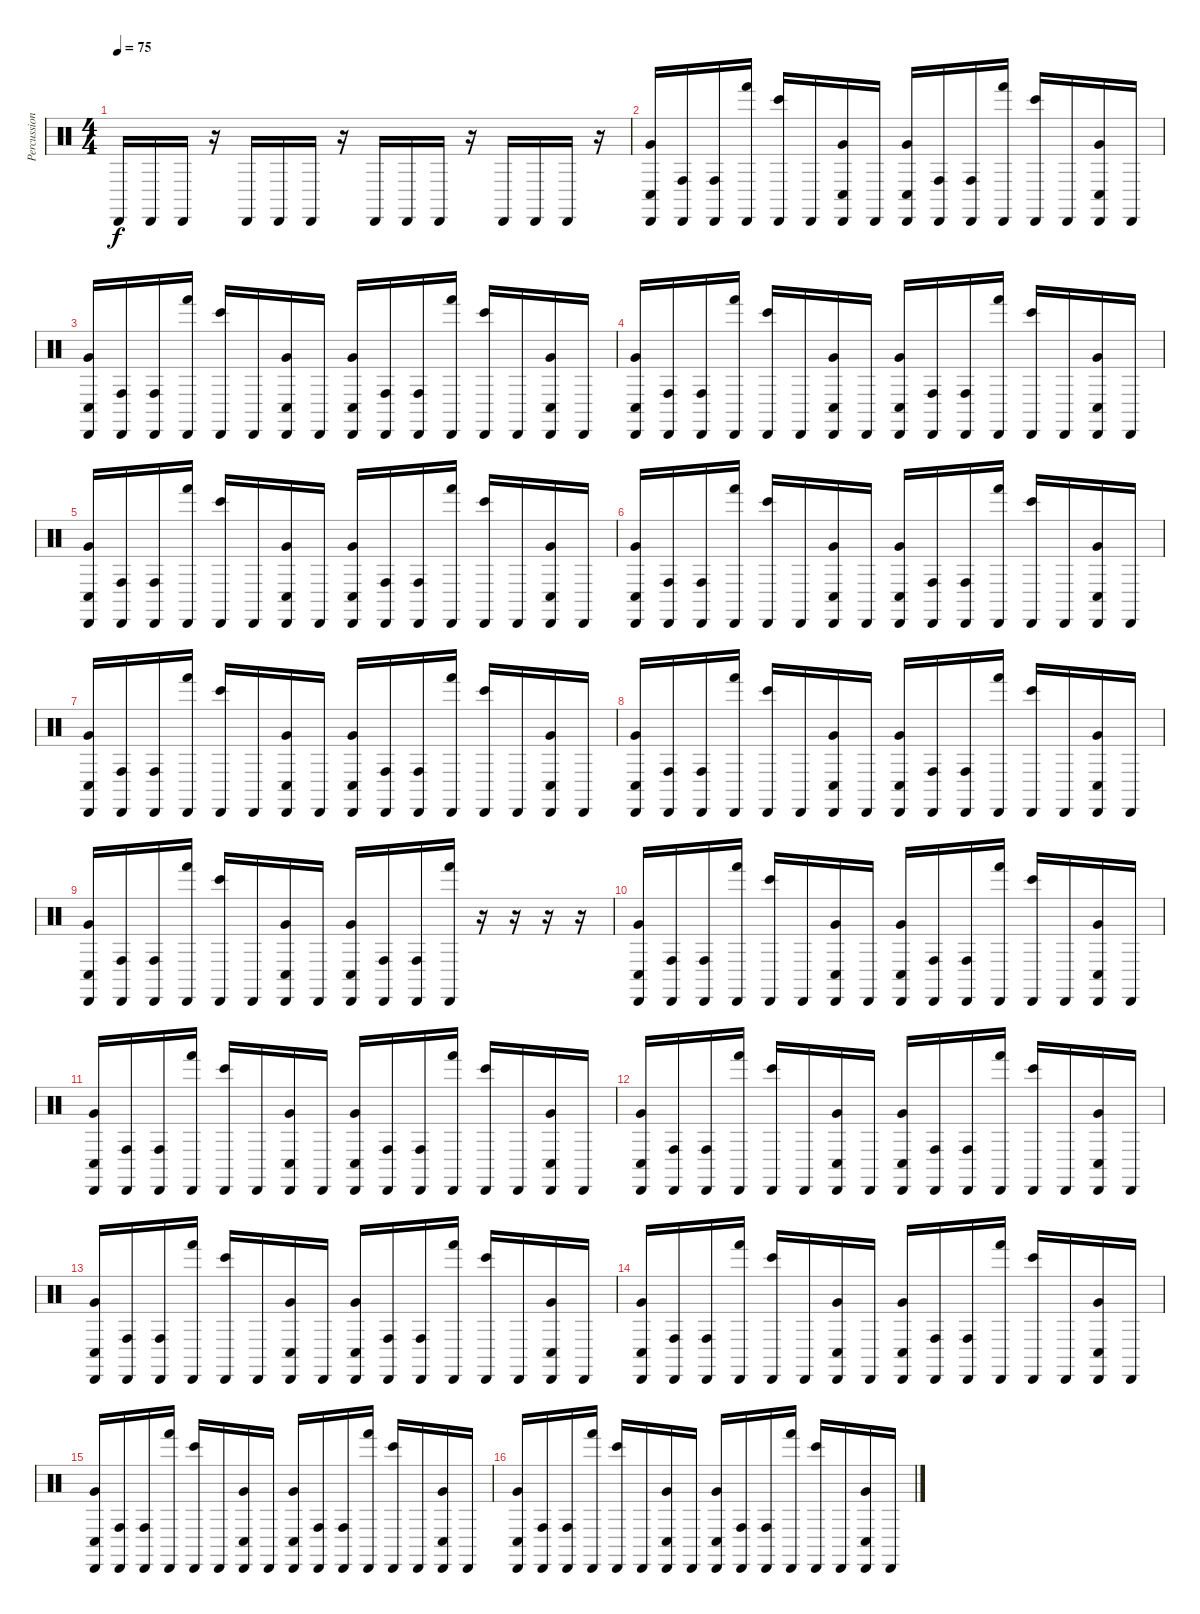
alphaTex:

\track ("Percussions" "Percussion") {instrument percussion}
\staff {score}
\articulation defaults
\ts (4 4)
\tempo 75
\clef neutral
\ks c "Cabasa (hit)".16{dy f} "Cabasa (hit)".16 "Cabasa (hit)".16
r.16 "Cabasa (hit)".16 "Cabasa (hit)".16 "Cabasa (hit)".16 r.16 "Cabasa (hit)".16 "Cabasa (hit)".16 "Cabasa (hit)".16 r.16 "Cabasa (hit)".16 "Cabasa (hit)".16 "Cabasa (hit)".16 r.16 |
("Conga low (hit)" "Very Low Tom (hit)" "Cabasa (hit)").16 ("Conga high (hit)" "Cabasa (hit)").16 ("Conga high (hit)" "Cabasa (hit)").16 ("Hand (hit)" "Cabasa (hit)").16 ("Bongo High (hit)" "Cabasa (hit)").16 "Cabasa (hit)".16 ("Conga low (hit)" "Very Low Tom (hit)" "Cabasa (hit)").16 "Cabasa (hit)".16 ("Conga low (hit)" "Very Low Tom (hit)" "Cabasa (hit)").16 ("Conga high (hit)" "Cabasa (hit)").16 ("Conga high (hit)" "Cabasa (hit)").16 ("Hand (hit)" "Cabasa (hit)").16 ("Bongo High (hit)" "Cabasa (hit)").16 "Cabasa (hit)".16 ("Conga low (hit)" "Very Low Tom (hit)" "Cabasa (hit)").16 "Cabasa (hit)".16 |
("Conga low (hit)" "Very Low Tom (hit)" "Cabasa (hit)").16 ("Conga high (hit)" "Cabasa (hit)").16 ("Conga high (hit)" "Cabasa (hit)").16 ("Hand (hit)" "Cabasa (hit)").16 ("Bongo High (hit)" "Cabasa (hit)").16 "Cabasa (hit)".16 ("Conga low (hit)" "Very Low Tom (hit)" "Cabasa (hit)").16 "Cabasa (hit)".16 ("Conga low (hit)" "Very Low Tom (hit)" "Cabasa (hit)").16 ("Conga high (hit)" "Cabasa (hit)").16 ("Conga high (hit)" "Cabasa (hit)").16 ("Hand (hit)" "Cabasa (hit)").16 ("Bongo High (hit)" "Cabasa (hit)").16 "Cabasa (hit)".16 ("Conga low (hit)" "Very Low Tom (hit)" "Cabasa (hit)").16 "Cabasa (hit)".16 |
("Conga low (hit)" "Very Low Tom (hit)" "Cabasa (hit)").16 ("Conga high (hit)" "Cabasa (hit)").16 ("Conga high (hit)" "Cabasa (hit)").16 ("Hand (hit)" "Cabasa (hit)").16 ("Bongo High (hit)" "Cabasa (hit)").16 "Cabasa (hit)".16 ("Conga low (hit)" "Very Low Tom (hit)" "Cabasa (hit)").16 "Cabasa (hit)".16 ("Conga low (hit)" "Very Low Tom (hit)" "Cabasa (hit)").16 ("Conga high (hit)" "Cabasa (hit)").16 ("Conga high (hit)" "Cabasa (hit)").16 ("Hand (hit)" "Cabasa (hit)").16 ("Bongo High (hit)" "Cabasa (hit)").16 "Cabasa (hit)".16 ("Conga low (hit)" "Very Low Tom (hit)" "Cabasa (hit)").16 "Cabasa (hit)".16 |
("Conga low (hit)" "Very Low Tom (hit)" "Cabasa (hit)").16 ("Conga high (hit)" "Cabasa (hit)").16 ("Conga high (hit)" "Cabasa (hit)").16 ("Hand (hit)" "Cabasa (hit)").16 ("Bongo High (hit)" "Cabasa (hit)").16 "Cabasa (hit)".16 ("Conga low (hit)" "Very Low Tom (hit)" "Cabasa (hit)").16 "Cabasa (hit)".16 ("Conga low (hit)" "Very Low Tom (hit)" "Cabasa (hit)").16 ("Conga high (hit)" "Cabasa (hit)").16 ("Conga high (hit)" "Cabasa (hit)").16 ("Hand (hit)" "Cabasa (hit)").16 ("Bongo High (hit)" "Cabasa (hit)").16 "Cabasa (hit)".16 ("Conga low (hit)" "Very Low Tom (hit)" "Cabasa (hit)").16 "Cabasa (hit)".16 |
("Conga low (hit)" "Very Low Tom (hit)" "Cabasa (hit)").16 ("Conga high (hit)" "Cabasa (hit)").16 ("Conga high (hit)" "Cabasa (hit)").16 ("Hand (hit)" "Cabasa (hit)").16 ("Bongo High (hit)" "Cabasa (hit)").16 "Cabasa (hit)".16 ("Conga low (hit)" "Very Low Tom (hit)" "Cabasa (hit)").16 "Cabasa (hit)".16 ("Conga low (hit)" "Very Low Tom (hit)" "Cabasa (hit)").16 ("Conga high (hit)" "Cabasa (hit)").16 ("Conga high (hit)" "Cabasa (hit)").16 ("Hand (hit)" "Cabasa (hit)").16 ("Bongo High (hit)" "Cabasa (hit)").16 "Cabasa (hit)".16 ("Conga low (hit)" "Very Low Tom (hit)" "Cabasa (hit)").16 "Cabasa (hit)".16 |
("Conga low (hit)" "Very Low Tom (hit)" "Cabasa (hit)").16 ("Conga high (hit)" "Cabasa (hit)").16 ("Conga high (hit)" "Cabasa (hit)").16 ("Hand (hit)" "Cabasa (hit)").16 ("Bongo High (hit)" "Cabasa (hit)").16 "Cabasa (hit)".16 ("Conga low (hit)" "Very Low Tom (hit)" "Cabasa (hit)").16 "Cabasa (hit)".16 ("Conga low (hit)" "Very Low Tom (hit)" "Cabasa (hit)").16 ("Conga high (hit)" "Cabasa (hit)").16 ("Conga high (hit)" "Cabasa (hit)").16 ("Hand (hit)" "Cabasa (hit)").16 ("Bongo High (hit)" "Cabasa (hit)").16 "Cabasa (hit)".16 ("Conga low (hit)" "Very Low Tom (hit)" "Cabasa (hit)").16 "Cabasa (hit)".16 |
("Conga low (hit)" "Very Low Tom (hit)" "Cabasa (hit)").16 ("Conga high (hit)" "Cabasa (hit)").16 ("Conga high (hit)" "Cabasa (hit)").16 ("Hand (hit)" "Cabasa (hit)").16 ("Bongo High (hit)" "Cabasa (hit)").16 "Cabasa (hit)".16 ("Conga low (hit)" "Very Low Tom (hit)" "Cabasa (hit)").16 "Cabasa (hit)".16 ("Conga low (hit)" "Very Low Tom (hit)" "Cabasa (hit)").16 ("Conga high (hit)" "Cabasa (hit)").16 ("Conga high (hit)" "Cabasa (hit)").16 ("Hand (hit)" "Cabasa (hit)").16 ("Bongo High (hit)" "Cabasa (hit)").16 "Cabasa (hit)".16 ("Conga low (hit)" "Very Low Tom (hit)" "Cabasa (hit)").16 "Cabasa (hit)".16 |
("Conga low (hit)" "Very Low Tom (hit)" "Cabasa (hit)").16 ("Conga high (hit)" "Cabasa (hit)").16 ("Conga high (hit)" "Cabasa (hit)").16 ("Hand (hit)" "Cabasa (hit)").16 ("Bongo High (hit)" "Cabasa (hit)").16 "Cabasa (hit)".16 ("Conga low (hit)" "Very Low Tom (hit)" "Cabasa (hit)").16 "Cabasa (hit)".16 ("Conga low (hit)" "Very Low Tom (hit)" "Cabasa (hit)").16 ("Conga high (hit)" "Cabasa (hit)").16 ("Conga high (hit)" "Cabasa (hit)").16 ("Hand (hit)" "Cabasa (hit)").16 r.16 r.16 r.16 r.16 |
("Conga low (hit)" "Very Low Tom (hit)" "Cabasa (hit)").16 ("Conga high (hit)" "Cabasa (hit)").16 ("Conga high (hit)" "Cabasa (hit)").16 ("Hand (hit)" "Cabasa (hit)").16 ("Bongo High (hit)" "Cabasa (hit)").16 "Cabasa (hit)".16 ("Conga low (hit)" "Very Low Tom (hit)" "Cabasa (hit)").16 "Cabasa (hit)".16 ("Conga low (hit)" "Very Low Tom (hit)" "Cabasa (hit)").16 ("Conga high (hit)" "Cabasa (hit)").16 ("Conga high (hit)" "Cabasa (hit)").16 ("Hand (hit)" "Cabasa (hit)").16 ("Bongo High (hit)" "Cabasa (hit)").16 "Cabasa (hit)".16 ("Conga low (hit)" "Very Low Tom (hit)" "Cabasa (hit)").16 "Cabasa (hit)".16 |
("Conga low (hit)" "Very Low Tom (hit)" "Cabasa (hit)").16 ("Conga high (hit)" "Cabasa (hit)").16 ("Conga high (hit)" "Cabasa (hit)").16 ("Hand (hit)" "Cabasa (hit)").16 ("Bongo High (hit)" "Cabasa (hit)").16 "Cabasa (hit)".16 ("Conga low (hit)" "Very Low Tom (hit)" "Cabasa (hit)").16 "Cabasa (hit)".16 ("Conga low (hit)" "Very Low Tom (hit)" "Cabasa (hit)").16 ("Conga high (hit)" "Cabasa (hit)").16 ("Conga high (hit)" "Cabasa (hit)").16 ("Hand (hit)" "Cabasa (hit)").16 ("Bongo High (hit)" "Cabasa (hit)").16 "Cabasa (hit)".16 ("Conga low (hit)" "Very Low Tom (hit)" "Cabasa (hit)").16 "Cabasa (hit)".16 |
("Conga low (hit)" "Very Low Tom (hit)" "Cabasa (hit)").16 ("Conga high (hit)" "Cabasa (hit)").16 ("Conga high (hit)" "Cabasa (hit)").16 ("Hand (hit)" "Cabasa (hit)").16 ("Bongo High (hit)" "Cabasa (hit)").16 "Cabasa (hit)".16 ("Conga low (hit)" "Very Low Tom (hit)" "Cabasa (hit)").16 "Cabasa (hit)".16 ("Conga low (hit)" "Very Low Tom (hit)" "Cabasa (hit)").16 ("Conga high (hit)" "Cabasa (hit)").16 ("Conga high (hit)" "Cabasa (hit)").16 ("Hand (hit)" "Cabasa (hit)").16 ("Bongo High (hit)" "Cabasa (hit)").16 "Cabasa (hit)".16 ("Conga low (hit)" "Very Low Tom (hit)" "Cabasa (hit)").16 "Cabasa (hit)".16 |
("Conga low (hit)" "Very Low Tom (hit)" "Cabasa (hit)").16 ("Conga high (hit)" "Cabasa (hit)").16 ("Conga high (hit)" "Cabasa (hit)").16 ("Hand (hit)" "Cabasa (hit)").16 ("Bongo High (hit)" "Cabasa (hit)").16 "Cabasa (hit)".16 ("Conga low (hit)" "Very Low Tom (hit)" "Cabasa (hit)").16 "Cabasa (hit)".16 ("Conga low (hit)" "Very Low Tom (hit)" "Cabasa (hit)").16 ("Conga high (hit)" "Cabasa (hit)").16 ("Conga high (hit)" "Cabasa (hit)").16 ("Hand (hit)" "Cabasa (hit)").16 ("Bongo High (hit)" "Cabasa (hit)").16 "Cabasa (hit)".16 ("Conga low (hit)" "Very Low Tom (hit)" "Cabasa (hit)").16 "Cabasa (hit)".16 |
("Conga low (hit)" "Very Low Tom (hit)" "Cabasa (hit)").16 ("Conga high (hit)" "Cabasa (hit)").16 ("Conga high (hit)" "Cabasa (hit)").16 ("Hand (hit)" "Cabasa (hit)").16 ("Bongo High (hit)" "Cabasa (hit)").16 "Cabasa (hit)".16 ("Conga low (hit)" "Very Low Tom (hit)" "Cabasa (hit)").16 "Cabasa (hit)".16 ("Conga low (hit)" "Very Low Tom (hit)" "Cabasa (hit)").16 ("Conga high (hit)" "Cabasa (hit)").16 ("Conga high (hit)" "Cabasa (hit)").16 ("Hand (hit)" "Cabasa (hit)").16 ("Bongo High (hit)" "Cabasa (hit)").16 "Cabasa (hit)".16 ("Conga low (hit)" "Very Low Tom (hit)" "Cabasa (hit)").16 "Cabasa (hit)".16 |
("Conga low (hit)" "Very Low Tom (hit)" "Cabasa (hit)").16 ("Conga high (hit)" "Cabasa (hit)").16 ("Conga high (hit)" "Cabasa (hit)").16 ("Hand (hit)" "Cabasa (hit)").16 ("Bongo High (hit)" "Cabasa (hit)").16 "Cabasa (hit)".16 ("Conga low (hit)" "Very Low Tom (hit)" "Cabasa (hit)").16 "Cabasa (hit)".16 ("Conga low (hit)" "Very Low Tom (hit)" "Cabasa (hit)").16 ("Conga high (hit)" "Cabasa (hit)").16 ("Conga high (hit)" "Cabasa (hit)").16 ("Hand (hit)" "Cabasa (hit)").16 ("Bongo High (hit)" "Cabasa (hit)").16 "Cabasa (hit)".16 ("Conga low (hit)" "Very Low Tom (hit)" "Cabasa (hit)").16 "Cabasa (hit)".16 |
("Conga low (hit)" "Very Low Tom (hit)" "Cabasa (hit)").16 ("Conga high (hit)" "Cabasa (hit)").16 ("Conga high (hit)" "Cabasa (hit)").16 ("Hand (hit)" "Cabasa (hit)").16 ("Bongo High (hit)" "Cabasa (hit)").16 "Cabasa (hit)".16 ("Conga low (hit)" "Very Low Tom (hit)" "Cabasa (hit)").16 "Cabasa (hit)".16 ("Conga low (hit)" "Very Low Tom (hit)" "Cabasa (hit)").16 ("Conga high (hit)" "Cabasa (hit)").16 ("Conga high (hit)" "Cabasa (hit)").16 ("Hand (hit)" "Cabasa (hit)").16 ("Bongo High (hit)" "Cabasa (hit)").16 "Cabasa (hit)".16 ("Conga low (hit)" "Very Low Tom (hit)" "Cabasa (hit)").16 "Cabasa (hit)".16
